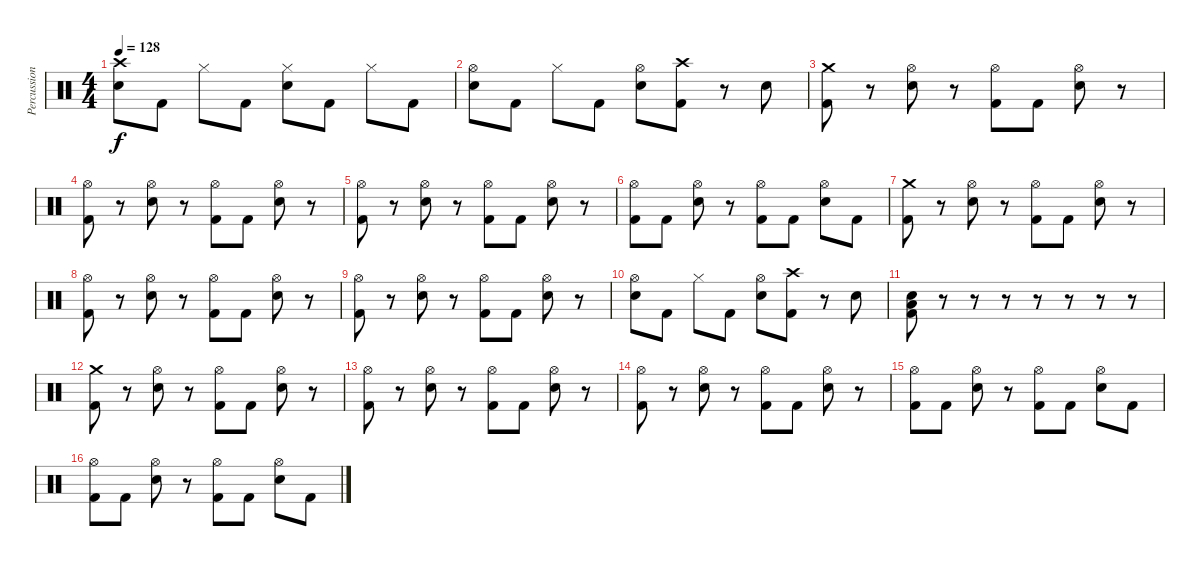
\track ("Percussion" "Percussion") {instrument percussion}
\staff {score}
\articulation defaults
\ts (4 4)
\tempo 128
\clef neutral
\ks c
("Crash high (hit)" "Snare (hit) 2").8{dy f} "Kick (hit) 2".8 "Hi-Hat (closed)".8 "Kick (hit) 2".8 ("Hi-Hat (closed)" "Snare (hit) 2").8 "Kick (hit) 2".8 "Hi-Hat (closed)".8 "Kick (hit) 2".8 |
("Hi-Hat (open)" "Snare (hit) 2").8 "Kick (hit) 2".8 "Hi-Hat (closed)".8 "Kick (hit) 2".8 ("Hi-Hat (open)" "Snare (hit) 2").8 ("Crash high (hit)" "Kick (hit) 2").8 r.8 "Snare (hit) 2".8 |
("Crash medium (hit)" "Kick (hit) 2").8 r.8 ("Hi-Hat (open)" "Snare (hit) 2").8 r.8 ("Hi-Hat (open)" "Kick (hit) 2").8 "Kick (hit) 2".8 ("Hi-Hat (open)" "Snare (hit) 2").8 r.8 |
("Hi-Hat (open)" "Kick (hit) 2").8 r.8 ("Hi-Hat (open)" "Snare (hit) 2").8 r.8 ("Hi-Hat (open)" "Kick (hit) 2").8 "Kick (hit) 2".8 ("Hi-Hat (open)" "Snare (hit) 2").8 r.8 |
("Hi-Hat (open)" "Kick (hit) 2").8 r.8 ("Hi-Hat (open)" "Snare (hit) 2").8 r.8 ("Hi-Hat (open)" "Kick (hit) 2").8 "Kick (hit) 2".8 ("Hi-Hat (open)" "Snare (hit) 2").8 r.8 |
("Hi-Hat (open)" "Kick (hit) 2").8 "Kick (hit) 2".8 ("Hi-Hat (open)" "Snare (hit) 2").8 r.8 ("Hi-Hat (open)" "Kick (hit) 2").8 "Kick (hit) 2".8 ("Hi-Hat (open)" "Snare (hit) 2").8 "Kick (hit) 2".8 |
("Crash medium (hit)" "Kick (hit) 2").8 r.8 ("Hi-Hat (open)" "Snare (hit) 2").8 r.8 ("Hi-Hat (open)" "Kick (hit) 2").8 "Kick (hit) 2".8 ("Hi-Hat (open)" "Snare (hit) 2").8 r.8 |
("Hi-Hat (open)" "Kick (hit) 2").8 r.8 ("Hi-Hat (open)" "Snare (hit) 2").8 r.8 ("Hi-Hat (open)" "Kick (hit) 2").8 "Kick (hit) 2".8 ("Hi-Hat (open)" "Snare (hit) 2").8 r.8 |
("Hi-Hat (open)" "Kick (hit) 2").8 r.8 ("Hi-Hat (open)" "Snare (hit) 2").8 r.8 ("Hi-Hat (open)" "Kick (hit) 2").8 "Kick (hit) 2".8 ("Hi-Hat (open)" "Snare (hit) 2").8 r.8 |
("Hi-Hat (open)" "Snare (hit) 2").8 "Kick (hit) 2".8 "Hi-Hat (closed)".8 "Kick (hit) 2".8 ("Hi-Hat (open)" "Snare (hit) 2").8 ("Crash high (hit)" "Kick (hit) 2").8 r.8 "Snare (hit) 2".8 |
("Kick (hit) 2" "Low Floor Tom (hit)" "Snare (hit) 2").8 r.8 r.8 r.8 r.8 r.8 r.8 r.8 |
("Crash medium (hit)" "Kick (hit) 2").8 r.8 ("Hi-Hat (open)" "Snare (hit) 2").8 r.8 ("Hi-Hat (open)" "Kick (hit) 2").8 "Kick (hit) 2".8 ("Hi-Hat (open)" "Snare (hit) 2").8 r.8 |
("Hi-Hat (open)" "Kick (hit) 2").8 r.8 ("Hi-Hat (open)" "Snare (hit) 2").8 r.8 ("Hi-Hat (open)" "Kick (hit) 2").8 "Kick (hit) 2".8 ("Hi-Hat (open)" "Snare (hit) 2").8 r.8 |
("Hi-Hat (open)" "Kick (hit) 2").8 r.8 ("Hi-Hat (open)" "Snare (hit) 2").8 r.8 ("Hi-Hat (open)" "Kick (hit) 2").8 "Kick (hit) 2".8 ("Hi-Hat (open)" "Snare (hit) 2").8 r.8 |
("Hi-Hat (open)" "Kick (hit) 2").8 "Kick (hit) 2".8 ("Hi-Hat (open)" "Snare (hit) 2").8 r.8 ("Hi-Hat (open)" "Kick (hit) 2").8 "Kick (hit) 2".8 ("Hi-Hat (open)" "Snare (hit) 2").8 "Kick (hit) 2".8 |
("Hi-Hat (open)" "Kick (hit) 2").8 "Kick (hit) 2".8 ("Hi-Hat (open)" "Snare (hit) 2").8 r.8 ("Hi-Hat (open)" "Kick (hit) 2").8 "Kick (hit) 2".8 ("Hi-Hat (open)" "Snare (hit) 2").8 "Kick (hit) 2".8
